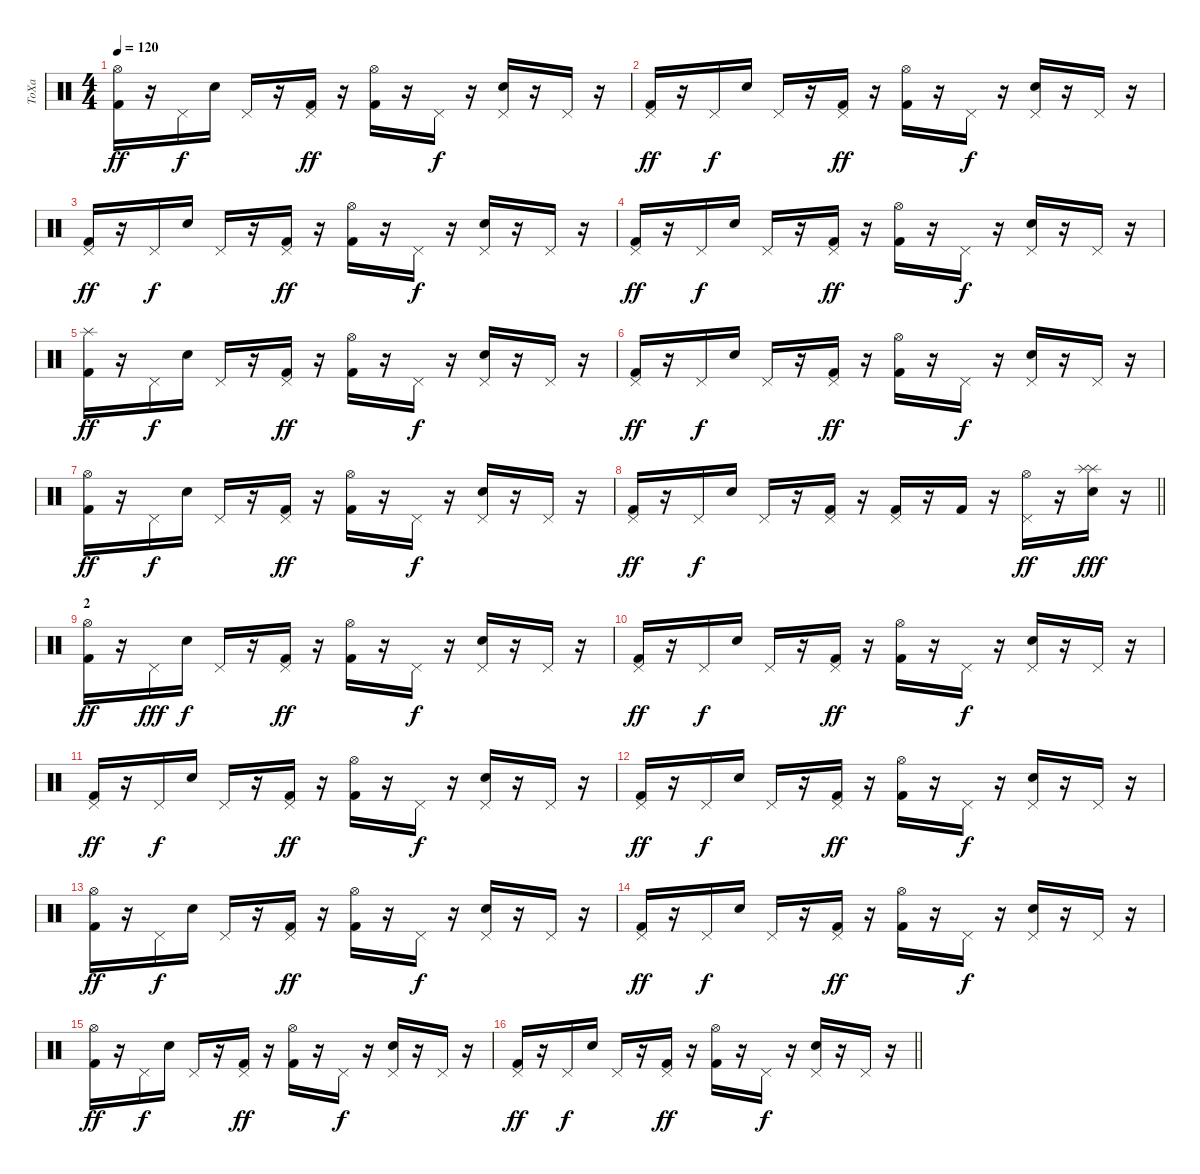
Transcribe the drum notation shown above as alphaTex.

\track ("ТоХа" "ТоХа") {instrument percussion}
\staff {score}
\articulation defaults
\ts (4 4)
\tempo 120
\clef neutral
\ks c
("Kick (hit) 2" "Hi-Hat (open)").16{dy ff} r.16 "Pedal Hi-Hat (hit)".16{dy f} "Electric Snare (hit)".16 "Pedal Hi-Hat (hit)".16 r.16 ("Pedal Hi-Hat (hit)" "Kick (hit) 2").16{dy ff} r.16 ("Hi-Hat (open)" "Kick (hit) 2").16 r.16 "Pedal Hi-Hat (hit)".16{dy f} r.16 ("Pedal Hi-Hat (hit)" "Electric Snare (hit)").16 r.16 "Pedal Hi-Hat (hit)".16 r.16 |
("Pedal Hi-Hat (hit)" "Kick (hit) 2").16{dy ff} r.16 "Pedal Hi-Hat (hit)".16{dy f} "Electric Snare (hit)".16 "Pedal Hi-Hat (hit)".16 r.16 ("Pedal Hi-Hat (hit)" "Kick (hit) 2").16{dy ff} r.16 ("Hi-Hat (open)" "Kick (hit) 2").16 r.16 "Pedal Hi-Hat (hit)".16{dy f} r.16 ("Pedal Hi-Hat (hit)" "Electric Snare (hit)").16 r.16 "Pedal Hi-Hat (hit)".16 r.16 |
("Pedal Hi-Hat (hit)" "Kick (hit) 2").16{dy ff} r.16 "Pedal Hi-Hat (hit)".16{dy f} "Electric Snare (hit)".16 "Pedal Hi-Hat (hit)".16 r.16 ("Pedal Hi-Hat (hit)" "Kick (hit) 2").16{dy ff} r.16 ("Hi-Hat (open)" "Kick (hit) 2").16 r.16 "Pedal Hi-Hat (hit)".16{dy f} r.16 ("Pedal Hi-Hat (hit)" "Electric Snare (hit)").16 r.16 "Pedal Hi-Hat (hit)".16 r.16 |
("Pedal Hi-Hat (hit)" "Kick (hit) 2").16{dy ff} r.16 "Pedal Hi-Hat (hit)".16{dy f} "Electric Snare (hit)".16 "Pedal Hi-Hat (hit)".16 r.16 ("Pedal Hi-Hat (hit)" "Kick (hit) 2").16{dy ff} r.16 ("Hi-Hat (open)" "Kick (hit) 2").16 r.16 "Pedal Hi-Hat (hit)".16{dy f} r.16 ("Pedal Hi-Hat (hit)" "Electric Snare (hit)").16 r.16 "Pedal Hi-Hat (hit)".16 r.16 |
("Splash (hit)" "Kick (hit) 2").16{dy ff} r.16 "Pedal Hi-Hat (hit)".16{dy f} "Electric Snare (hit)".16 "Pedal Hi-Hat (hit)".16 r.16 ("Pedal Hi-Hat (hit)" "Kick (hit) 2").16{dy ff} r.16 ("Hi-Hat (open)" "Kick (hit) 2").16 r.16 "Pedal Hi-Hat (hit)".16{dy f} r.16 ("Pedal Hi-Hat (hit)" "Electric Snare (hit)").16 r.16 "Pedal Hi-Hat (hit)".16 r.16 |
("Pedal Hi-Hat (hit)" "Kick (hit) 2").16{dy ff} r.16 "Pedal Hi-Hat (hit)".16{dy f} "Electric Snare (hit)".16 "Pedal Hi-Hat (hit)".16 r.16 ("Pedal Hi-Hat (hit)" "Kick (hit) 2").16{dy ff} r.16 ("Hi-Hat (open)" "Kick (hit) 2").16 r.16 "Pedal Hi-Hat (hit)".16{dy f} r.16 ("Pedal Hi-Hat (hit)" "Electric Snare (hit)").16 r.16 "Pedal Hi-Hat (hit)".16 r.16 |
("Hi-Hat (open)" "Kick (hit) 2").16{dy ff} r.16 "Pedal Hi-Hat (hit)".16{dy f} "Electric Snare (hit)".16 "Pedal Hi-Hat (hit)".16 r.16 ("Pedal Hi-Hat (hit)" "Kick (hit) 2").16{dy ff} r.16 ("Hi-Hat (open)" "Kick (hit) 2").16 r.16 "Pedal Hi-Hat (hit)".16{dy f} r.16 ("Pedal Hi-Hat (hit)" "Electric Snare (hit)").16 r.16 "Pedal Hi-Hat (hit)".16 r.16 |
\barLineRight lightlight
("Pedal Hi-Hat (hit)" "Kick (hit) 2").16{dy ff} r.16 "Pedal Hi-Hat (hit)".16{dy f} "Electric Snare (hit)".16 "Pedal Hi-Hat (hit)".16 r.16 ("Pedal Hi-Hat (hit)" "Kick (hit) 2").16 r.16 ("Pedal Hi-Hat (hit)" "Kick (hit) 2").16 r.16 "Kick (hit) 2".16 r.16 ("Pedal Hi-Hat (hit)" "Hi-Hat (open)").16{dy ff} r.16 ("Splash (hit)" "Splash (hit)" "Electric Snare (hit)").16{dy fff} r.16 |
\section ("" "2")
("Hi-Hat (open)" "Kick (hit) 2").16{dy ff} r.16 "Pedal Hi-Hat (hit)".16{dy fff} "Electric Snare (hit)".16{dy f} "Pedal Hi-Hat (hit)".16 r.16 ("Pedal Hi-Hat (hit)" "Kick (hit) 2").16{dy ff} r.16 ("Hi-Hat (open)" "Kick (hit) 2").16 r.16 "Pedal Hi-Hat (hit)".16{dy f} r.16 ("Pedal Hi-Hat (hit)" "Electric Snare (hit)").16 r.16 "Pedal Hi-Hat (hit)".16 r.16 |
("Pedal Hi-Hat (hit)" "Kick (hit) 2").16{dy ff} r.16 "Pedal Hi-Hat (hit)".16{dy f} "Electric Snare (hit)".16 "Pedal Hi-Hat (hit)".16 r.16 ("Pedal Hi-Hat (hit)" "Kick (hit) 2").16{dy ff} r.16 ("Hi-Hat (open)" "Kick (hit) 2").16 r.16 "Pedal Hi-Hat (hit)".16{dy f} r.16 ("Pedal Hi-Hat (hit)" "Electric Snare (hit)").16 r.16 "Pedal Hi-Hat (hit)".16 r.16 |
("Pedal Hi-Hat (hit)" "Kick (hit) 2").16{dy ff} r.16 "Pedal Hi-Hat (hit)".16{dy f} "Electric Snare (hit)".16 "Pedal Hi-Hat (hit)".16 r.16 ("Pedal Hi-Hat (hit)" "Kick (hit) 2").16{dy ff} r.16 ("Hi-Hat (open)" "Kick (hit) 2").16 r.16 "Pedal Hi-Hat (hit)".16{dy f} r.16 ("Pedal Hi-Hat (hit)" "Electric Snare (hit)").16 r.16 "Pedal Hi-Hat (hit)".16 r.16 |
("Pedal Hi-Hat (hit)" "Kick (hit) 2").16{dy ff} r.16 "Pedal Hi-Hat (hit)".16{dy f} "Electric Snare (hit)".16 "Pedal Hi-Hat (hit)".16 r.16 ("Pedal Hi-Hat (hit)" "Kick (hit) 2").16{dy ff} r.16 ("Hi-Hat (open)" "Kick (hit) 2").16 r.16 "Pedal Hi-Hat (hit)".16{dy f} r.16 ("Pedal Hi-Hat (hit)" "Electric Snare (hit)").16 r.16 "Pedal Hi-Hat (hit)".16 r.16 |
("Hi-Hat (open)" "Kick (hit) 2").16{dy ff} r.16 "Pedal Hi-Hat (hit)".16{dy f} "Electric Snare (hit)".16 "Pedal Hi-Hat (hit)".16 r.16 ("Pedal Hi-Hat (hit)" "Kick (hit) 2").16{dy ff} r.16 ("Hi-Hat (open)" "Kick (hit) 2").16 r.16 "Pedal Hi-Hat (hit)".16{dy f} r.16 ("Pedal Hi-Hat (hit)" "Electric Snare (hit)").16 r.16 "Pedal Hi-Hat (hit)".16 r.16 |
("Pedal Hi-Hat (hit)" "Kick (hit) 2").16{dy ff} r.16 "Pedal Hi-Hat (hit)".16{dy f} "Electric Snare (hit)".16 "Pedal Hi-Hat (hit)".16 r.16 ("Pedal Hi-Hat (hit)" "Kick (hit) 2").16{dy ff} r.16 ("Hi-Hat (open)" "Kick (hit) 2").16 r.16 "Pedal Hi-Hat (hit)".16{dy f} r.16 ("Pedal Hi-Hat (hit)" "Electric Snare (hit)").16 r.16 "Pedal Hi-Hat (hit)".16 r.16 |
("Hi-Hat (open)" "Kick (hit) 2").16{dy ff} r.16 "Pedal Hi-Hat (hit)".16{dy f} "Electric Snare (hit)".16 "Pedal Hi-Hat (hit)".16 r.16 ("Pedal Hi-Hat (hit)" "Kick (hit) 2").16{dy ff} r.16 ("Hi-Hat (open)" "Kick (hit) 2").16 r.16 "Pedal Hi-Hat (hit)".16{dy f} r.16 ("Pedal Hi-Hat (hit)" "Electric Snare (hit)").16 r.16 "Pedal Hi-Hat (hit)".16 r.16 |
\barLineRight lightlight
("Pedal Hi-Hat (hit)" "Kick (hit) 2").16{dy ff} r.16 "Pedal Hi-Hat (hit)".16{dy f} "Electric Snare (hit)".16 "Pedal Hi-Hat (hit)".16 r.16 ("Pedal Hi-Hat (hit)" "Kick (hit) 2").16{dy ff} r.16 ("Hi-Hat (open)" "Kick (hit) 2").16 r.16 "Pedal Hi-Hat (hit)".16{dy f} r.16 ("Pedal Hi-Hat (hit)" "Electric Snare (hit)").16 r.16 "Pedal Hi-Hat (hit)".16 r.16
